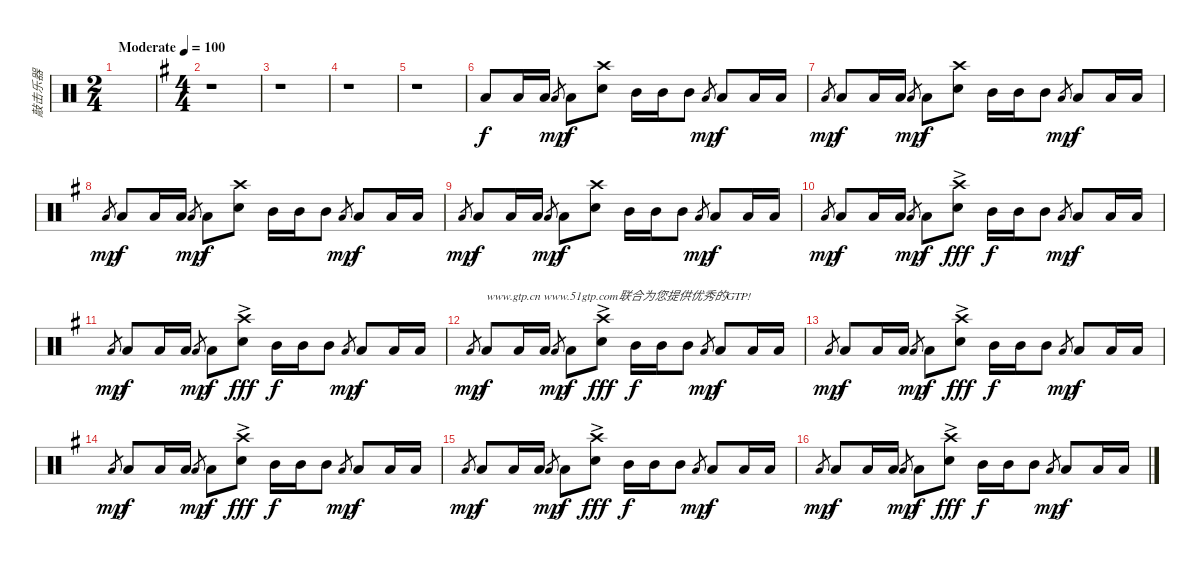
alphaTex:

\track ("敲击乐器" "敲击乐器") {instrument percussion}
\staff {score}
\articulation defaults
\ts (2 4)
\tempo (100 "Moderate")
\clef neutral
\ks c
|
\ts (4 4)
\ks eminor
r.1 |
r.1 |
r.1 |
r.1 |
"Low Floor Tom (hit)".8{volume 6} "Low Floor Tom (hit)".16 "Low Floor Tom (hit)".16 "Low Tom (hit)"{sl}.8{gr dy mp} "Low Floor Tom (hit)".8{dy f} ("Crash high (hit)" "Snare (hit) 2").8 "Mid Tom (hit)".16 "Mid Tom (hit)".16 "Mid Tom (hit)".8 "Low Tom (hit)"{sl}.8{gr dy mp} "Low Tom (hit)".8{dy f} "Low Tom (hit)".16 "Low Tom (hit)".16 |
"Low Tom (hit)"{sl}.8{gr dy mp} "Low Floor Tom (hit)".8{dy f} "Low Floor Tom (hit)".16 "Low Floor Tom (hit)".16 "Low Tom (hit)"{sl}.8{gr dy mp} "Low Floor Tom (hit)".8{dy f} ("Crash high (hit)" "Snare (hit) 2").8 "Mid Tom (hit)".16 "Mid Tom (hit)".16 "Mid Tom (hit)".8 "Low Tom (hit)"{sl}.8{gr dy mp} "Low Tom (hit)".8{dy f} "Low Tom (hit)".16 "Low Tom (hit)".16 |
"Low Tom (hit)"{sl}.8{gr dy mp} "Low Floor Tom (hit)".8{dy f} "Low Floor Tom (hit)".16 "Low Floor Tom (hit)".16 "Low Tom (hit)"{sl}.8{gr dy mp} "Low Floor Tom (hit)".8{dy f} ("Crash high (hit)" "Snare (hit) 2").8 "Mid Tom (hit)".16 "Mid Tom (hit)".16 "Mid Tom (hit)".8 "Low Tom (hit)"{sl}.8{gr dy mp} "Low Tom (hit)".8{dy f} "Low Tom (hit)".16 "Low Tom (hit)".16 |
"Low Tom (hit)"{sl}.8{gr dy mp} "Low Floor Tom (hit)".8{dy f} "Low Floor Tom (hit)".16 "Low Floor Tom (hit)".16 "Low Tom (hit)"{sl}.8{gr dy mp} "Low Floor Tom (hit)".8{dy f} ("Crash high (hit)" "Snare (hit) 2").8 "Mid Tom (hit)".16 "Mid Tom (hit)".16 "Mid Tom (hit)".8 "Low Tom (hit)"{sl}.8{gr dy mp} "Low Tom (hit)".8{dy f} "Low Tom (hit)".16 "Low Tom (hit)".16 |
"Low Tom (hit)"{sl}.8{gr dy mp} "Low Floor Tom (hit)".8{dy f} "Low Floor Tom (hit)".16 "Low Floor Tom (hit)".16 "Low Tom (hit)"{sl}.8{gr dy mp} "Low Floor Tom (hit)".8{dy f} ("Crash high (hit)"{ac} "Snare (hit) 2"{ac}).8{dy fff} "Mid Tom (hit)".16{dy f} "Mid Tom (hit)".16 "Mid Tom (hit)".8 "Low Tom (hit)"{sl}.8{gr dy mp} "Low Tom (hit)".8{dy f} "Low Tom (hit)".16 "Low Tom (hit)".16 |
"Low Tom (hit)"{sl}.8{gr dy mp} "Low Floor Tom (hit)".8{dy f} "Low Floor Tom (hit)".16 "Low Floor Tom (hit)".16 "Low Tom (hit)"{sl}.8{gr dy mp} "Low Floor Tom (hit)".8{dy f} ("Crash high (hit)"{ac} "Snare (hit) 2"{ac}).8{dy fff} "Mid Tom (hit)".16{dy f} "Mid Tom (hit)".16 "Mid Tom (hit)".8 "Low Tom (hit)"{sl}.8{gr dy mp} "Low Tom (hit)".8{dy f} "Low Tom (hit)".16 "Low Tom (hit)".16 |
"Low Tom (hit)"{sl}.8{gr dy mp} "Low Floor Tom (hit)".8{txt "www.gtp.cn www.51gtp.com联合为您提供优秀的GTP!" dy f} "Low Floor Tom (hit)".16 "Low Floor Tom (hit)".16 "Low Tom (hit)"{sl}.8{gr dy mp} "Low Floor Tom (hit)".8{dy f} ("Crash high (hit)"{ac} "Snare (hit) 2"{ac}).8{dy fff} "Mid Tom (hit)".16{dy f} "Mid Tom (hit)".16 "Mid Tom (hit)".8 "Low Tom (hit)"{sl}.8{gr dy mp} "Low Tom (hit)".8{dy f} "Low Tom (hit)".16 "Low Tom (hit)".16 |
"Low Tom (hit)"{sl}.8{gr dy mp} "Low Floor Tom (hit)".8{dy f} "Low Floor Tom (hit)".16 "Low Floor Tom (hit)".16 "Low Tom (hit)"{sl}.8{gr dy mp} "Low Floor Tom (hit)".8{dy f} ("Crash high (hit)"{ac} "Snare (hit) 2"{ac}).8{dy fff} "Mid Tom (hit)".16{dy f} "Mid Tom (hit)".16 "Mid Tom (hit)".8 "Low Tom (hit)"{sl}.8{gr dy mp} "Low Tom (hit)".8{dy f} "Low Tom (hit)".16 "Low Tom (hit)".16 |
"Low Tom (hit)"{sl}.8{gr dy mp} "Low Floor Tom (hit)".8{dy f} "Low Floor Tom (hit)".16 "Low Floor Tom (hit)".16 "Low Tom (hit)"{sl}.8{gr dy mp} "Low Floor Tom (hit)".8{dy f} ("Crash high (hit)"{ac} "Snare (hit) 2"{ac}).8{dy fff} "Mid Tom (hit)".16{dy f} "Mid Tom (hit)".16 "Mid Tom (hit)".8 "Low Tom (hit)"{sl}.8{gr dy mp} "Low Tom (hit)".8{dy f} "Low Tom (hit)".16 "Low Tom (hit)".16 |
"Low Tom (hit)"{sl}.8{gr dy mp} "Low Floor Tom (hit)".8{dy f} "Low Floor Tom (hit)".16 "Low Floor Tom (hit)".16 "Low Tom (hit)"{sl}.8{gr dy mp} "Low Floor Tom (hit)".8{dy f} ("Crash high (hit)"{ac} "Snare (hit) 2"{ac}).8{dy fff} "Mid Tom (hit)".16{dy f} "Mid Tom (hit)".16 "Mid Tom (hit)".8 "Low Tom (hit)"{sl}.8{gr dy mp} "Low Tom (hit)".8{dy f} "Low Tom (hit)".16 "Low Tom (hit)".16 |
"Low Tom (hit)"{sl}.8{gr dy mp} "Low Floor Tom (hit)".8{dy f} "Low Floor Tom (hit)".16 "Low Floor Tom (hit)".16 "Low Tom (hit)"{sl}.8{gr dy mp} "Low Floor Tom (hit)".8{dy f} ("Crash high (hit)"{ac} "Snare (hit) 2"{ac}).8{dy fff} "Mid Tom (hit)".16{dy f} "Mid Tom (hit)".16 "Mid Tom (hit)".8 "Low Tom (hit)"{sl}.8{gr dy mp} "Low Tom (hit)".8{dy f} "Low Tom (hit)".16 "Low Tom (hit)".16
